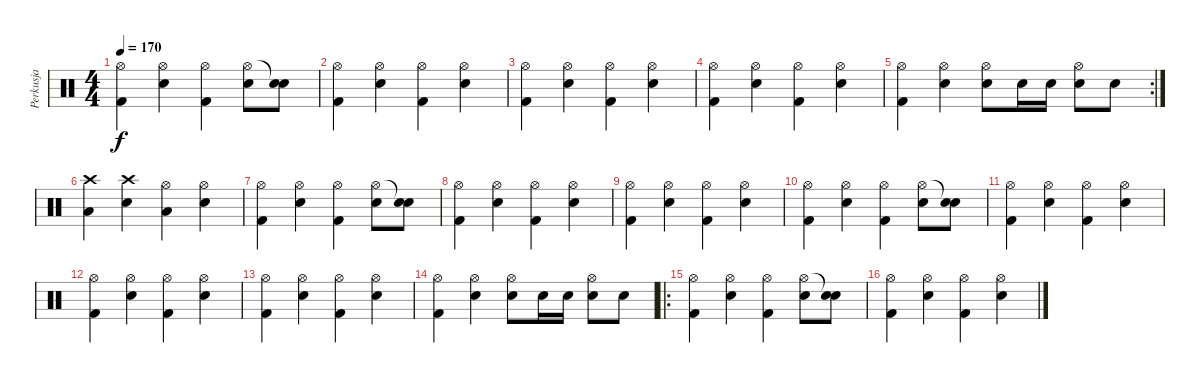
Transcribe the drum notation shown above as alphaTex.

\track ("Perkusja" "Perkusja") {instrument percussion}
\staff {score}
\articulation defaults
\ts (4 4)
\tempo 170
\clef neutral
\ks c
("Hi-Hat (open)" "Kick (hit) 2").4{dy f} ("Hi-Hat (open)" "Snare (hit) 2").4 ("Hi-Hat (open)" "Kick (hit) 2").4 ("Hi-Hat (open)" "Snare (hit) 2").8 ("Snare (hit)"{t} "Snare (hit) 2").8 |
("Hi-Hat (open)" "Kick (hit) 2").4 ("Hi-Hat (open)" "Snare (hit) 2").4 ("Hi-Hat (open)" "Kick (hit) 2").4 ("Hi-Hat (open)" "Snare (hit) 2").4 |
("Hi-Hat (open)" "Kick (hit) 2").4 ("Hi-Hat (open)" "Snare (hit) 2").4 ("Hi-Hat (open)" "Kick (hit) 2").4 ("Hi-Hat (open)" "Snare (hit) 2").4 |
("Hi-Hat (open)" "Kick (hit) 2").4 ("Hi-Hat (open)" "Snare (hit) 2").4 ("Hi-Hat (open)" "Kick (hit) 2").4 ("Hi-Hat (open)" "Snare (hit) 2").4 |
\rc 2
("Hi-Hat (open)" "Kick (hit) 2").4 ("Hi-Hat (open)" "Snare (hit) 2").4 ("Hi-Hat (open)" "Snare (hit) 2").8 "Snare (hit) 2".16 "Snare (hit) 2".16 ("Hi-Hat (open)" "Snare (hit) 2").8 "Snare (hit) 2".8 |
("Crash high (hit)" "Low Tom (hit)").4 ("Crash high (hit)" "Snare (hit) 2").4 ("Hi-Hat (open)" "Low Tom (hit)").4 ("Hi-Hat (open)" "Snare (hit) 2").4 |
("Hi-Hat (open)" "Kick (hit) 2").4 ("Hi-Hat (open)" "Snare (hit) 2").4 ("Hi-Hat (open)" "Kick (hit) 2").4 ("Hi-Hat (open)" "Snare (hit) 2").8 ("Snare (hit)"{t} "Snare (hit) 2").8 |
("Hi-Hat (open)" "Kick (hit) 2").4 ("Hi-Hat (open)" "Snare (hit) 2").4 ("Hi-Hat (open)" "Kick (hit) 2").4 ("Hi-Hat (open)" "Snare (hit) 2").4 |
("Hi-Hat (open)" "Kick (hit) 2").4 ("Hi-Hat (open)" "Snare (hit) 2").4 ("Hi-Hat (open)" "Kick (hit) 2").4 ("Hi-Hat (open)" "Snare (hit) 2").4 |
("Hi-Hat (open)" "Kick (hit) 2").4 ("Hi-Hat (open)" "Snare (hit) 2").4 ("Hi-Hat (open)" "Kick (hit) 2").4 ("Hi-Hat (open)" "Snare (hit) 2").8 ("Snare (hit)"{t} "Snare (hit) 2").8 |
("Hi-Hat (open)" "Kick (hit) 2").4 ("Hi-Hat (open)" "Snare (hit) 2").4 ("Hi-Hat (open)" "Kick (hit) 2").4 ("Hi-Hat (open)" "Snare (hit) 2").4 |
("Hi-Hat (open)" "Kick (hit) 2").4 ("Hi-Hat (open)" "Snare (hit) 2").4 ("Hi-Hat (open)" "Kick (hit) 2").4 ("Hi-Hat (open)" "Snare (hit) 2").4 |
("Hi-Hat (open)" "Kick (hit) 2").4 ("Hi-Hat (open)" "Snare (hit) 2").4 ("Hi-Hat (open)" "Kick (hit) 2").4 ("Hi-Hat (open)" "Snare (hit) 2").4 |
("Hi-Hat (open)" "Kick (hit) 2").4 ("Hi-Hat (open)" "Snare (hit) 2").4 ("Hi-Hat (open)" "Snare (hit) 2").8 "Snare (hit) 2".16 "Snare (hit) 2".16 ("Hi-Hat (open)" "Snare (hit) 2").8 "Snare (hit) 2".8 |
\ro
("Hi-Hat (open)" "Kick (hit) 2").4 ("Hi-Hat (open)" "Snare (hit) 2").4 ("Hi-Hat (open)" "Kick (hit) 2").4 ("Hi-Hat (open)" "Snare (hit) 2").8 ("Snare (hit)"{t} "Snare (hit) 2").8 |
("Hi-Hat (open)" "Kick (hit) 2").4 ("Hi-Hat (open)" "Snare (hit) 2").4 ("Hi-Hat (open)" "Kick (hit) 2").4 ("Hi-Hat (open)" "Snare (hit) 2").4
